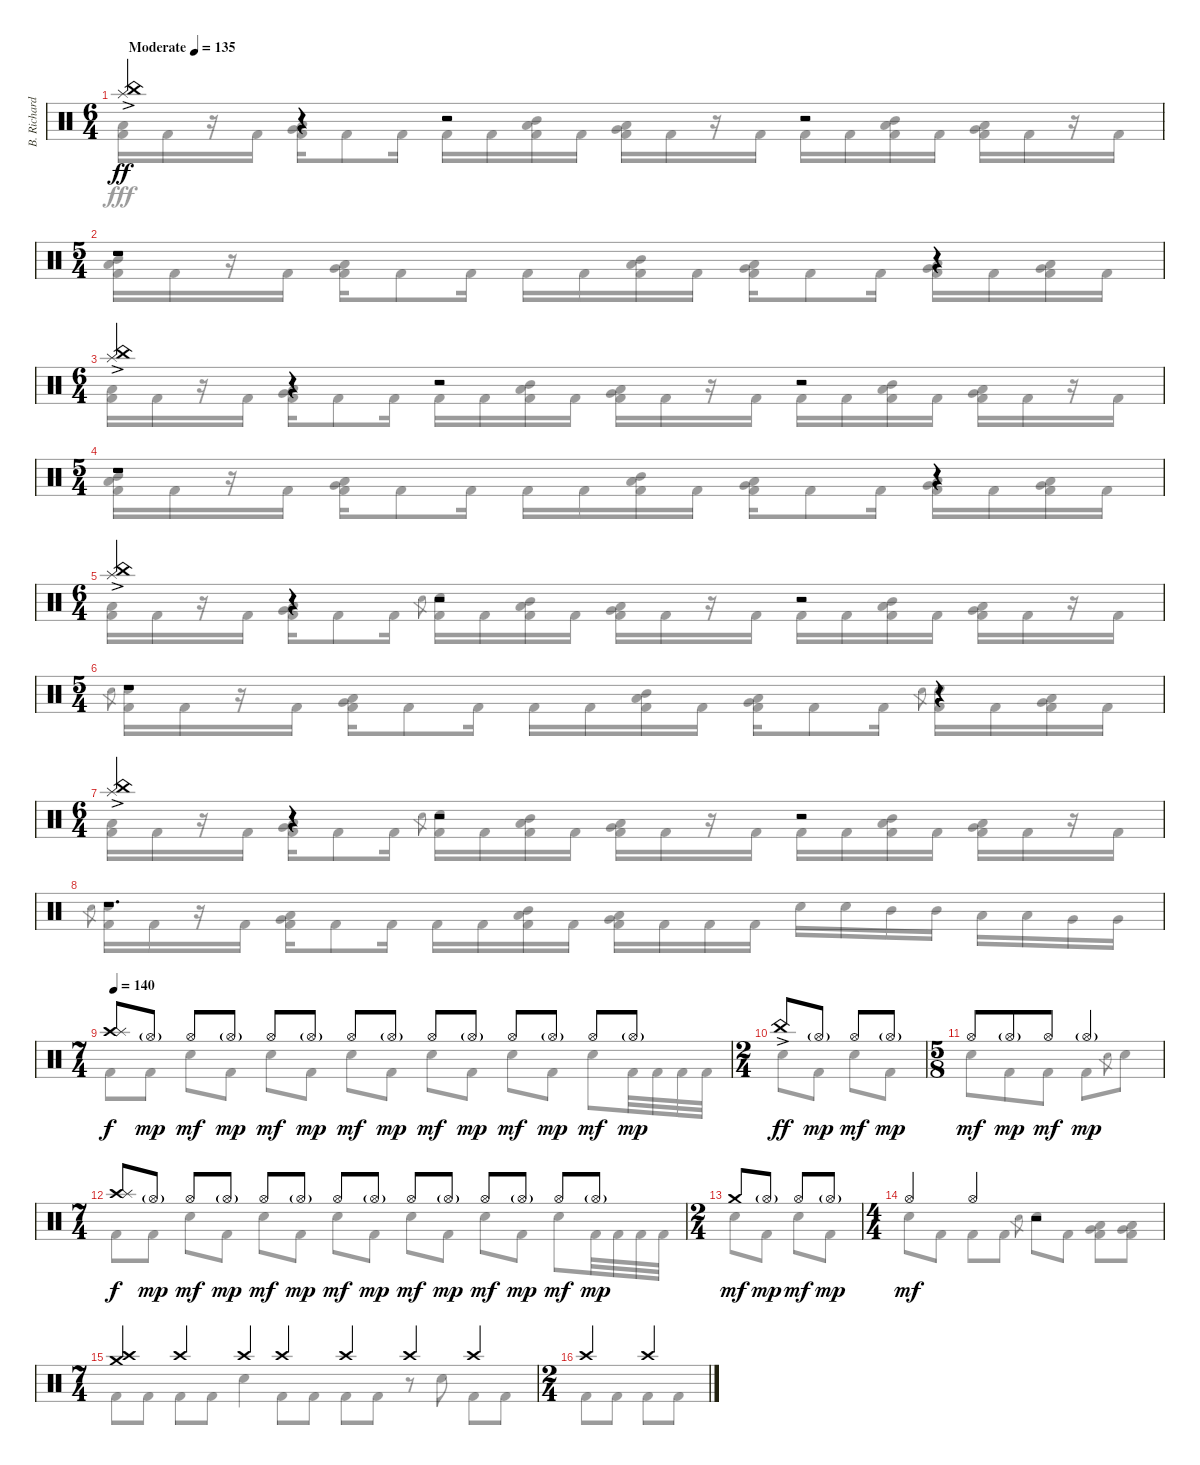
\track ("B. Richardson Drums" "B. Richard") {instrument percussion}
\staff {score}
\articulation defaults
\voice
\ts (6 4)
\tempo (135 "Moderate")
\clef neutral
\ks c
("China (hit)"{ac} "Splash (hit)").4{dy ff} r.4 r.2 r.2 |
\ts (5 4)
r.1 r.4 |
\ts (6 4)
("China (hit)"{ac} "Splash (hit)").4 r.4 r.2 r.2 |
\ts (5 4)
r.1 r.4 |
\ts (6 4)
("China (hit)"{ac} "Splash (hit)").4 r.4 r.2 r.2 |
\ts (5 4)
r.1 r.4 |
\ts (6 4)
("China (hit)"{ac} "Splash (hit)").4 r.4 r.2 r.2 |
r.1{d} |
\ts (7 4)
\tempo 140
("Crash high (hit)" "Splash (hit)").8{dy f} "Hi-Hat (open)"{g}.8{dy mp} "Hi-Hat (open)".8{dy mf} "Hi-Hat (open)"{g}.8{dy mp} "Hi-Hat (open)".8{dy mf} "Hi-Hat (open)"{g}.8{dy mp} "Hi-Hat (open)".8{dy mf} "Hi-Hat (open)"{g}.8{dy mp} "Hi-Hat (open)".8{dy mf} "Hi-Hat (open)"{g}.8{dy mp} "Hi-Hat (open)".8{dy mf} "Hi-Hat (open)"{g}.8{dy mp} "Hi-Hat (open)".8{dy mf} "Hi-Hat (open)"{g}.8{dy mp} |
\ts (2 4)
"China (hit)"{ac}.8{dy ff} "Hi-Hat (open)"{g}.8{dy mp} "Hi-Hat (open)".8{dy mf} "Hi-Hat (open)"{g}.8{dy mp} |
\ts (5 8)
"Hi-Hat (open)".8{dy mf} "Hi-Hat (open)"{g}.8{dy mp} "Hi-Hat (open)".8{dy mf} "Hi-Hat (open)"{g}.4{dy mp} |
\ts (7 4)
("Crash high (hit)" "Splash (hit)").8{dy f} "Hi-Hat (open)"{g}.8{dy mp} "Hi-Hat (open)".8{dy mf} "Hi-Hat (open)"{g}.8{dy mp} "Hi-Hat (open)".8{dy mf} "Hi-Hat (open)"{g}.8{dy mp} "Hi-Hat (open)".8{dy mf} "Hi-Hat (open)"{g}.8{dy mp} "Hi-Hat (open)".8{dy mf} "Hi-Hat (open)"{g}.8{dy mp} "Hi-Hat (open)".8{dy mf} "Hi-Hat (open)"{g}.8{dy mp} "Hi-Hat (open)".8{dy mf} "Hi-Hat (open)"{g}.8{dy mp} |
\ts (2 4)
"Crash medium (hit)".8{dy mf} "Hi-Hat (open)"{g}.8{dy mp} "Hi-Hat (open)".8{dy mf} "Hi-Hat (open)"{g}.8{dy mp} |
\ts (4 4)
"Hi-Hat (open)".4{dy mf} "Hi-Hat (open)".4 r.2 |
\ts (7 4)
("Crash high (hit)" "Crash medium (hit)").4 "Crash high (hit)".4 "Crash high (hit)".4 "Crash high (hit)".4 "Crash high (hit)".4 "Crash high (hit)".4 "Crash high (hit)".4 |
\ts (2 4)
"Crash high (hit)".4 "Crash high (hit)".4
\voice
\clef neutral
\ottava regular
\simile none
\ks c
("Low Tom (hit)" "Kick (hit) 2").16{dy fff} "Kick (hit) 2".16 r.16 "Kick (hit) 2".16 ("Low Tom (hit)" "Very Low Tom (hit)" "Kick (hit) 2").16 "Kick (hit) 2".8 "Kick (hit) 2".16 "Kick (hit) 2".16 "Kick (hit) 2".16 ("Mid Tom (hit)" "Low Tom (hit)" "Kick (hit) 2").16 "Kick (hit) 2".16 ("Low Tom (hit)" "Very Low Tom (hit)" "Kick (hit) 2").16 "Kick (hit) 2".16 r.16 "Kick (hit) 2".16 "Kick (hit) 2".16 "Kick (hit) 2".16 ("Mid Tom (hit)" "Low Tom (hit)" "Kick (hit) 2").16 "Kick (hit) 2".16 ("Low Tom (hit)" "Very Low Tom (hit)" "Kick (hit) 2").16 "Kick (hit) 2".16 r.16 "Kick (hit) 2".16 |
("Mid Tom (hit)" "Low Tom (hit)" "Kick (hit) 2").16 "Kick (hit) 2".16 r.16 "Kick (hit) 2".16 ("Low Tom (hit)" "Very Low Tom (hit)" "Kick (hit) 2").16 "Kick (hit) 2".8 "Kick (hit) 2".16 "Kick (hit) 2".16 "Kick (hit) 2".16 ("Mid Tom (hit)" "Low Tom (hit)" "Kick (hit) 2").16 "Kick (hit) 2".16 ("Low Tom (hit)" "Very Low Tom (hit)" "Kick (hit) 2").16 "Kick (hit) 2".8 "Kick (hit) 2".16 ("Low Tom (hit)" "Very Low Tom (hit)" "Kick (hit) 2").16 "Kick (hit) 2".16 ("Low Tom (hit)" "Very Low Tom (hit)" "Kick (hit) 2").16 "Kick (hit) 2".16 |
("Low Tom (hit)" "Kick (hit) 2").16 "Kick (hit) 2".16 r.16 "Kick (hit) 2".16 ("Low Tom (hit)" "Very Low Tom (hit)" "Kick (hit) 2").16 "Kick (hit) 2".8 "Kick (hit) 2".16 "Kick (hit) 2".16 "Kick (hit) 2".16 ("Mid Tom (hit)" "Low Tom (hit)" "Kick (hit) 2").16 "Kick (hit) 2".16 ("Low Tom (hit)" "Very Low Tom (hit)" "Kick (hit) 2").16 "Kick (hit) 2".16 r.16 "Kick (hit) 2".16 "Kick (hit) 2".16 "Kick (hit) 2".16 ("Mid Tom (hit)" "Low Tom (hit)" "Kick (hit) 2").16 "Kick (hit) 2".16 ("Low Tom (hit)" "Very Low Tom (hit)" "Kick (hit) 2").16 "Kick (hit) 2".16 r.16 "Kick (hit) 2".16 |
("Mid Tom (hit)" "Low Tom (hit)" "Kick (hit) 2").16 "Kick (hit) 2".16 r.16 "Kick (hit) 2".16 ("Low Tom (hit)" "Very Low Tom (hit)" "Kick (hit) 2").16 "Kick (hit) 2".8 "Kick (hit) 2".16 "Kick (hit) 2".16 "Kick (hit) 2".16 ("Mid Tom (hit)" "Low Tom (hit)" "Kick (hit) 2").16 "Kick (hit) 2".16 ("Low Tom (hit)" "Very Low Tom (hit)" "Kick (hit) 2").16 "Kick (hit) 2".8 "Kick (hit) 2".16 ("Low Tom (hit)" "Very Low Tom (hit)" "Kick (hit) 2").16 "Kick (hit) 2".16 ("Low Tom (hit)" "Very Low Tom (hit)" "Kick (hit) 2").16 "Kick (hit) 2".16 |
("Low Tom (hit)" "Kick (hit) 2").16 "Kick (hit) 2".16 r.16 "Kick (hit) 2".16 ("Low Tom (hit)" "Very Low Tom (hit)" "Kick (hit) 2").16 "Kick (hit) 2".8 "Kick (hit) 2".16 "Electric Snare (hit)".8{gr} ("Electric Snare (hit)" "Kick (hit) 2").16 "Kick (hit) 2".16 ("Mid Tom (hit)" "Low Tom (hit)" "Kick (hit) 2").16 "Kick (hit) 2".16 ("Low Tom (hit)" "Very Low Tom (hit)" "Kick (hit) 2").16 "Kick (hit) 2".16 r.16 "Kick (hit) 2".16 "Kick (hit) 2".16 "Kick (hit) 2".16 ("Mid Tom (hit)" "Low Tom (hit)" "Kick (hit) 2").16 "Kick (hit) 2".16 ("Low Tom (hit)" "Very Low Tom (hit)" "Kick (hit) 2").16 "Kick (hit) 2".16 r.16 "Kick (hit) 2".16 |
"Electric Snare (hit)".8{gr} ("Electric Snare (hit)" "Kick (hit) 2").16 "Kick (hit) 2".16 r.16 "Kick (hit) 2".16 ("Low Tom (hit)" "Very Low Tom (hit)" "Kick (hit) 2").16 "Kick (hit) 2".8 "Kick (hit) 2".16 "Kick (hit) 2".16 "Kick (hit) 2".16 ("Mid Tom (hit)" "Low Tom (hit)" "Kick (hit) 2").16 "Kick (hit) 2".16 ("Low Tom (hit)" "Very Low Tom (hit)" "Kick (hit) 2").16 "Kick (hit) 2".8 "Kick (hit) 2".16 "Electric Snare (hit)".8{gr} ("Electric Snare (hit)" "Kick (hit) 2").16 "Kick (hit) 2".16 ("Low Tom (hit)" "Very Low Tom (hit)" "Kick (hit) 2").16 "Kick (hit) 2".16 |
("Low Tom (hit)" "Kick (hit) 2").16 "Kick (hit) 2".16 r.16 "Kick (hit) 2".16 ("Low Tom (hit)" "Very Low Tom (hit)" "Kick (hit) 2").16 "Kick (hit) 2".8 "Kick (hit) 2".16 "Electric Snare (hit)".8{gr} ("Electric Snare (hit)" "Kick (hit) 2").16 "Kick (hit) 2".16 ("Mid Tom (hit)" "Low Tom (hit)" "Kick (hit) 2").16 "Kick (hit) 2".16 ("Low Tom (hit)" "Very Low Tom (hit)" "Kick (hit) 2").16 "Kick (hit) 2".16 r.16 "Kick (hit) 2".16 "Kick (hit) 2".16 "Kick (hit) 2".16 ("Mid Tom (hit)" "Low Tom (hit)" "Kick (hit) 2").16 "Kick (hit) 2".16 ("Low Tom (hit)" "Very Low Tom (hit)" "Kick (hit) 2").16 "Kick (hit) 2".16 r.16 "Kick (hit) 2".16 |
"Electric Snare (hit)".8{gr} ("Electric Snare (hit)" "Kick (hit) 2").16 "Kick (hit) 2".16 r.16 "Kick (hit) 2".16 ("Low Tom (hit)" "Very Low Tom (hit)" "Kick (hit) 2").16 "Kick (hit) 2".8 "Kick (hit) 2".16 "Kick (hit) 2".16 "Kick (hit) 2".16 ("Mid Tom (hit)" "Low Tom (hit)" "Kick (hit) 2").16 "Kick (hit) 2".16 ("Low Tom (hit)" "Very Low Tom (hit)" "Kick (hit) 2").16 "Kick (hit) 2".16 "Kick (hit) 2".16 "Kick (hit) 2".16 "Electric Snare (hit)".16 "Electric Snare (hit)".16 "Mid Tom (hit)".16 "Mid Tom (hit)".16 "Low Tom (hit)".16 "Low Tom (hit)".16 "Very Low Tom (hit)".16 "Very Low Tom (hit)".16 |
"Kick (hit) 2".8 "Kick (hit) 2".8 "Electric Snare (hit)".8 "Kick (hit) 2".8 "Electric Snare (hit)".8 "Kick (hit) 2".8 "Electric Snare (hit)".8 "Kick (hit) 2".8 "Electric Snare (hit)".8 "Kick (hit) 2".8 "Electric Snare (hit)".8 "Kick (hit) 2".8 "Electric Snare (hit)".8 "Kick (hit) 2".32 "Kick (hit) 2".32 "Kick (hit) 2".32 "Kick (hit) 2".32 |
"Electric Snare (hit)".8 "Kick (hit) 2".8 "Electric Snare (hit)".8 "Kick (hit) 2".8 |
"Electric Snare (hit)".8 "Kick (hit) 2".8 "Kick (hit) 2".8 "Kick (hit) 2".8 "Electric Snare (hit)".8{gr} "Electric Snare (hit)".8 |
"Kick (hit) 2".8 "Kick (hit) 2".8 "Electric Snare (hit)".8 "Kick (hit) 2".8 "Electric Snare (hit)".8 "Kick (hit) 2".8 "Electric Snare (hit)".8 "Kick (hit) 2".8 "Electric Snare (hit)".8 "Kick (hit) 2".8 "Electric Snare (hit)".8 "Kick (hit) 2".8 "Electric Snare (hit)".8 "Kick (hit) 2".32 "Kick (hit) 2".32 "Kick (hit) 2".32 "Kick (hit) 2".32 |
"Electric Snare (hit)".8 "Kick (hit) 2".8 "Electric Snare (hit)".8 "Kick (hit) 2".8 |
"Electric Snare (hit)".8 "Kick (hit) 2".8 "Kick (hit) 2".8 "Kick (hit) 2".8 "Electric Snare (hit)".8{gr} "Electric Snare (hit)".8 "Kick (hit) 2".8 ("Low Tom (hit)" "Very Low Tom (hit)" "Kick (hit) 2").8 ("Low Tom (hit)" "Very Low Tom (hit)" "Kick (hit) 2").8 |
"Kick (hit) 2".8 "Kick (hit) 2".8 "Kick (hit) 2".8 "Kick (hit) 2".8 "Electric Snare (hit)".4 "Kick (hit) 2".8 "Kick (hit) 2".8 "Kick (hit) 2".8 "Kick (hit) 2".8 r.8 "Electric Snare (hit)".8 "Kick (hit) 2".8 "Kick (hit) 2".8 |
"Kick (hit) 2".8 "Kick (hit) 2".8 "Kick (hit) 2".8 "Kick (hit) 2".8
